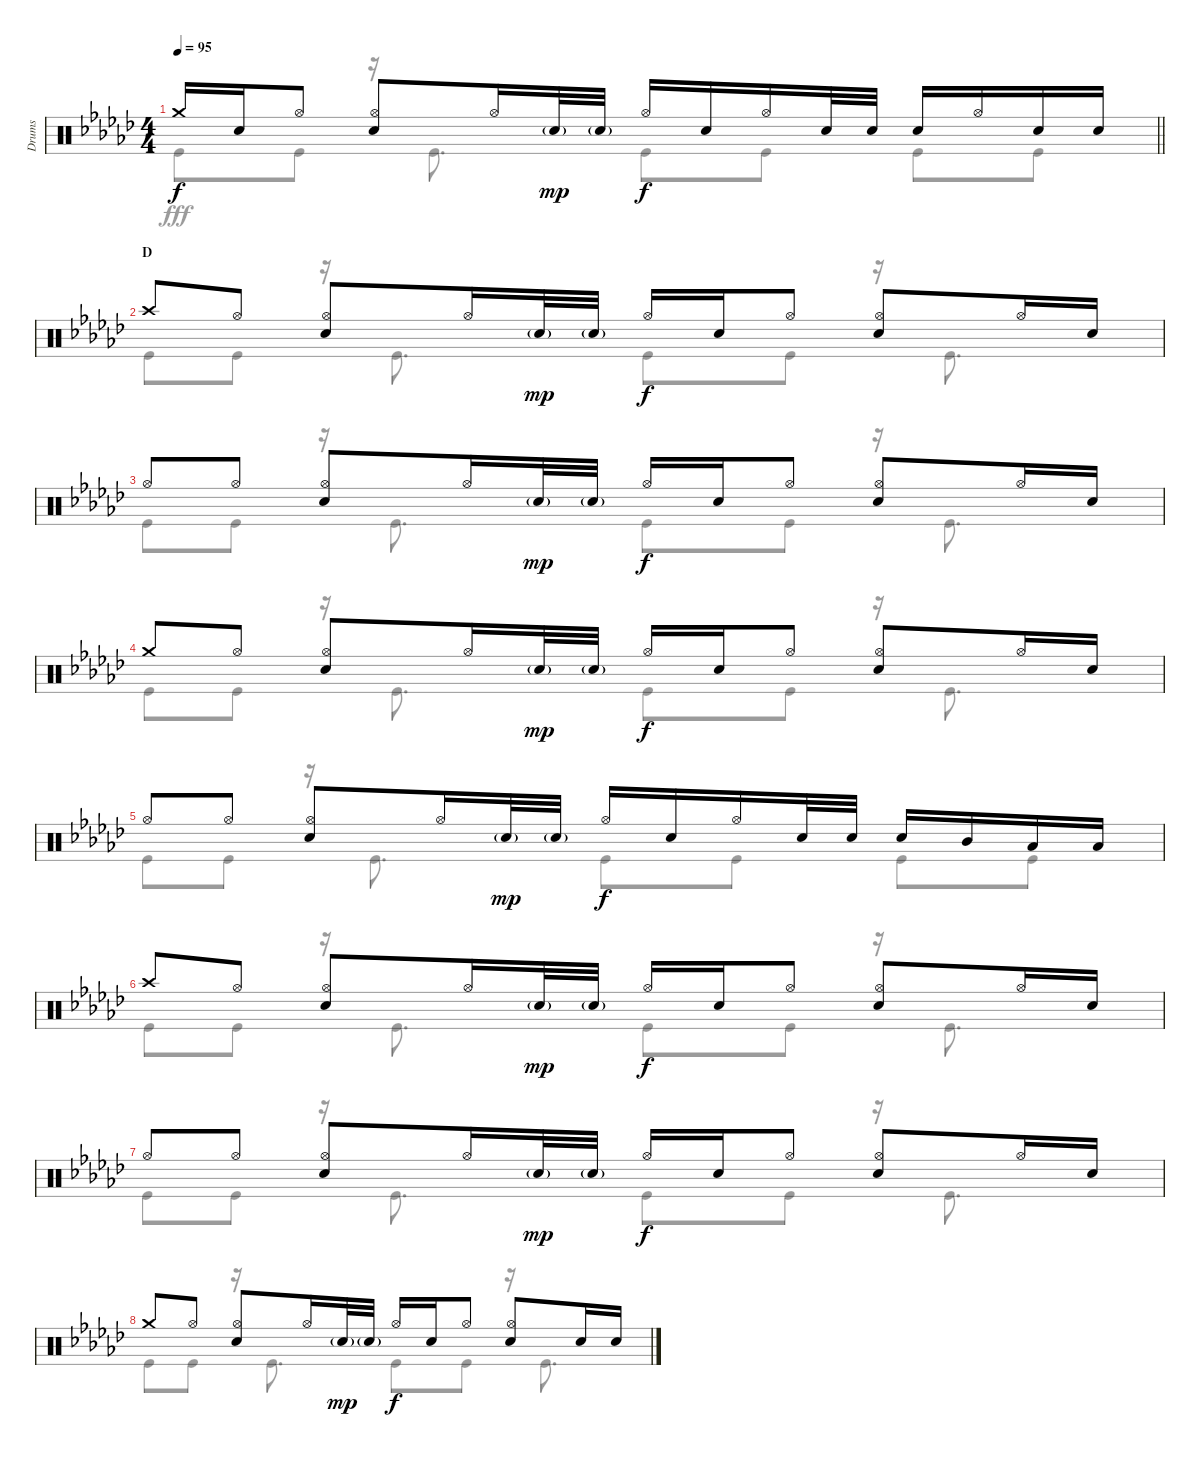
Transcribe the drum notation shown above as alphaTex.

\track ("Drums" "Drums") {instrument percussion}
\staff {score}
\articulation defaults
\voice
\ts (4 4)
\tempo 95
\clef neutral
\barLineRight lightlight
\ks gb "Crash medium (hit)".16{dy f} "Snare (hit) 2".16 "Hi-Hat (open)".8
("Hi-Hat (open)" "Snare (hit) 2").8 "Hi-Hat (open)".16 "Snare (hit) 2"{g}.32{dy mp} "Snare (hit) 2"{g}.32 "Hi-Hat (open)".16{dy f} "Snare (hit) 2".16 "Hi-Hat (open)".16 "Snare (hit) 2".32 "Snare (hit) 2".32 "Snare (hit) 2".16 "Hi-Hat (open)".16 "Snare (hit) 2".16 "Snare (hit) 2".16 |
\section ("" "D")
"Crash high (hit)".8 "Hi-Hat (open)".8 ("Hi-Hat (open)" "Snare (hit) 2").8 "Hi-Hat (open)".16 "Snare (hit) 2"{g}.32{dy mp} "Snare (hit) 2"{g}.32 "Hi-Hat (open)".16{dy f} "Snare (hit) 2".16 "Hi-Hat (open)".8 ("Hi-Hat (open)" "Snare (hit) 2").8 "Hi-Hat (open)".16 "Snare (hit) 2".16 |
"Hi-Hat (open)".8 "Hi-Hat (open)".8 ("Hi-Hat (open)" "Snare (hit) 2").8 "Hi-Hat (open)".16 "Snare (hit) 2"{g}.32{dy mp} "Snare (hit) 2"{g}.32 "Hi-Hat (open)".16{dy f} "Snare (hit) 2".16 "Hi-Hat (open)".8 ("Hi-Hat (open)" "Snare (hit) 2").8 "Hi-Hat (open)".16 "Snare (hit) 2".16 |
"Crash medium (hit)".8 "Hi-Hat (open)".8 ("Hi-Hat (open)" "Snare (hit) 2").8 "Hi-Hat (open)".16 "Snare (hit) 2"{g}.32{dy mp} "Snare (hit) 2"{g}.32 "Hi-Hat (open)".16{dy f} "Snare (hit) 2".16 "Hi-Hat (open)".8 ("Hi-Hat (open)" "Snare (hit) 2").8 "Hi-Hat (open)".16 "Snare (hit) 2".16 |
"Hi-Hat (open)".8 "Hi-Hat (open)".8 ("Hi-Hat (open)" "Snare (hit) 2").8 "Hi-Hat (open)".16 "Snare (hit) 2"{g}.32{dy mp} "Snare (hit) 2"{g}.32 "Hi-Hat (open)".16{dy f} "Snare (hit) 2".16 "Hi-Hat (open)".16 "Snare (hit) 2".32 "Snare (hit) 2".32 "Snare (hit) 2".16 "Mid Tom (hit)".16 "Low Tom (hit)".16 "Low Tom (hit)".16 |
"Crash high (hit)".8 "Hi-Hat (open)".8 ("Hi-Hat (open)" "Snare (hit) 2").8 "Hi-Hat (open)".16 "Snare (hit) 2"{g}.32{dy mp} "Snare (hit) 2"{g}.32 "Hi-Hat (open)".16{dy f} "Snare (hit) 2".16 "Hi-Hat (open)".8 ("Hi-Hat (open)" "Snare (hit) 2").8 "Hi-Hat (open)".16 "Snare (hit) 2".16 |
"Hi-Hat (open)".8 "Hi-Hat (open)".8 ("Hi-Hat (open)" "Snare (hit) 2").8 "Hi-Hat (open)".16 "Snare (hit) 2"{g}.32{dy mp} "Snare (hit) 2"{g}.32 "Hi-Hat (open)".16{dy f} "Snare (hit) 2".16 "Hi-Hat (open)".8 ("Hi-Hat (open)" "Snare (hit) 2").8 "Hi-Hat (open)".16 "Snare (hit) 2".16 |
"Crash medium (hit)".8 "Hi-Hat (open)".8 ("Hi-Hat (open)" "Snare (hit) 2").8 "Hi-Hat (open)".16 "Snare (hit) 2"{g}.32{dy mp} "Snare (hit) 2"{g}.32 "Hi-Hat (open)".16{dy f} "Snare (hit) 2".16 "Hi-Hat (open)".8 ("Hi-Hat (open)" "Snare (hit) 2").8 "Snare (hit) 2".16 "Snare (hit) 2".16
\voice
\clef neutral
\ottava regular
\simile none
\barLineRight lightlight
\ks gb "Kick (hit)".8{dy fff} "Kick (hit)".8
r.16 "Kick (hit)".8{d} "Kick (hit)".8 "Kick (hit)".8 "Kick (hit)".8 "Kick (hit)".8 |
"Kick (hit)".8 "Kick (hit)".8 r.16 "Kick (hit)".8{d} "Kick (hit)".8 "Kick (hit)".8 r.16 "Kick (hit)".8{d} |
"Kick (hit)".8 "Kick (hit)".8 r.16 "Kick (hit)".8{d} "Kick (hit)".8 "Kick (hit)".8 r.16 "Kick (hit)".8{d} |
"Kick (hit)".8 "Kick (hit)".8 r.16 "Kick (hit)".8{d} "Kick (hit)".8 "Kick (hit)".8 r.16 "Kick (hit)".8{d} |
"Kick (hit)".8 "Kick (hit)".8 r.16 "Kick (hit)".8{d} "Kick (hit)".8 "Kick (hit)".8 "Kick (hit)".8 "Kick (hit)".8 |
"Kick (hit)".8 "Kick (hit)".8 r.16 "Kick (hit)".8{d} "Kick (hit)".8 "Kick (hit)".8 r.16 "Kick (hit)".8{d} |
"Kick (hit)".8 "Kick (hit)".8 r.16 "Kick (hit)".8{d} "Kick (hit)".8 "Kick (hit)".8 r.16 "Kick (hit)".8{d} |
"Kick (hit)".8 "Kick (hit)".8 r.16 "Kick (hit)".8{d} "Kick (hit)".8 "Kick (hit)".8 r.16 "Kick (hit)".8{d}
